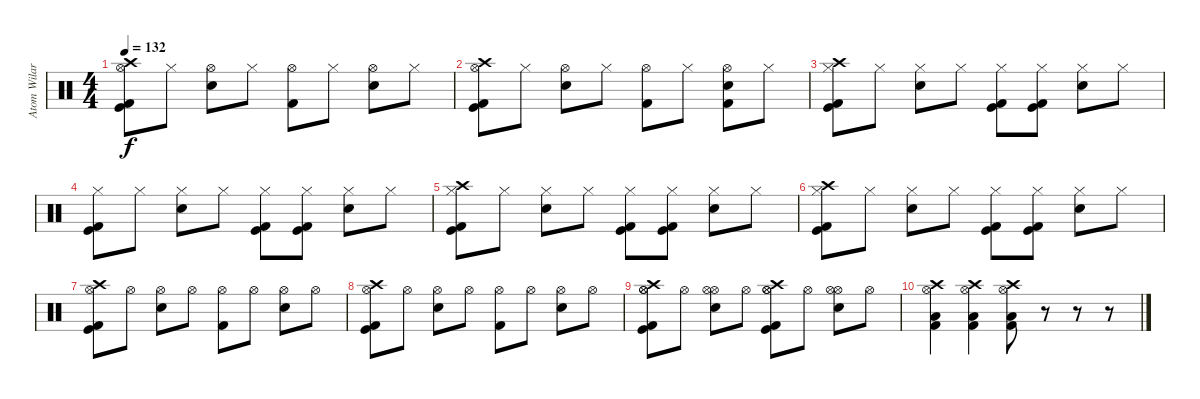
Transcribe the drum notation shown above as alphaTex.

\track ("Atom Wilard or Ron Welty ?" "Atom Wilar") {instrument percussion}
\staff {score}
\articulation defaults
\ts (4 4)
\tempo 132
\clef neutral
\ks c
("Hi-Hat (open)" "Crash high (hit)" "Kick (hit)" "Kick (hit) 2").8{dy f} "Hi-Hat (closed)".8 ("Hi-Hat (open)" "Electric Snare (hit)").8 "Hi-Hat (closed)".8 ("Hi-Hat (open)" "Kick (hit) 2").8 "Hi-Hat (closed)".8 ("Hi-Hat (open)" "Electric Snare (hit)").8 "Hi-Hat (closed)".8 |
("Hi-Hat (open)" "Crash high (hit)" "Kick (hit)" "Kick (hit) 2").8 "Hi-Hat (closed)".8 ("Hi-Hat (open)" "Electric Snare (hit)").8 "Hi-Hat (closed)".8 ("Hi-Hat (open)" "Kick (hit) 2").8 "Hi-Hat (closed)".8 ("Hi-Hat (open)" "Electric Snare (hit)" "Kick (hit) 2").8 "Hi-Hat (closed)".8 |
("Hi-Hat (closed)" "Crash high (hit)" "Kick (hit)" "Kick (hit) 2").8 "Hi-Hat (closed)".8 ("Hi-Hat (closed)" "Electric Snare (hit)").8 "Hi-Hat (closed)".8 ("Hi-Hat (closed)" "Kick (hit)" "Kick (hit) 2").8 ("Hi-Hat (closed)" "Kick (hit)" "Kick (hit) 2").8 ("Hi-Hat (closed)" "Electric Snare (hit)").8 "Hi-Hat (closed)".8 |
("Hi-Hat (closed)" "Kick (hit)" "Kick (hit) 2").8 "Hi-Hat (closed)".8 ("Hi-Hat (closed)" "Electric Snare (hit)").8 "Hi-Hat (closed)".8 ("Hi-Hat (closed)" "Kick (hit)" "Kick (hit) 2").8 ("Hi-Hat (closed)" "Kick (hit)" "Kick (hit) 2").8 ("Hi-Hat (closed)" "Electric Snare (hit)").8 "Hi-Hat (closed)".8 |
("Hi-Hat (closed)" "Crash high (hit)" "Kick (hit)" "Kick (hit) 2").8 "Hi-Hat (closed)".8 ("Hi-Hat (closed)" "Electric Snare (hit)").8 "Hi-Hat (closed)".8 ("Hi-Hat (closed)" "Kick (hit)" "Kick (hit) 2").8 ("Hi-Hat (closed)" "Kick (hit)" "Kick (hit) 2").8 ("Hi-Hat (closed)" "Electric Snare (hit)").8 "Hi-Hat (closed)".8 |
("Hi-Hat (closed)" "Crash high (hit)" "Kick (hit)" "Kick (hit) 2").8 "Hi-Hat (closed)".8 ("Hi-Hat (closed)" "Electric Snare (hit)").8 "Hi-Hat (closed)".8 ("Hi-Hat (closed)" "Kick (hit)" "Kick (hit) 2").8 ("Hi-Hat (closed)" "Kick (hit)" "Kick (hit) 2").8 ("Hi-Hat (closed)" "Electric Snare (hit)").8 "Hi-Hat (closed)".8 |
("Hi-Hat (open)" "Crash high (hit)" "Kick (hit)" "Kick (hit) 2").8 "Hi-Hat (open)".8 ("Hi-Hat (open)" "Electric Snare (hit)").8 "Hi-Hat (open)".8 ("Hi-Hat (open)" "Kick (hit) 2").8 "Hi-Hat (open)".8 ("Hi-Hat (open)" "Electric Snare (hit)").8 "Hi-Hat (open)".8 |
("Hi-Hat (open)" "Crash high (hit)" "Kick (hit)" "Kick (hit) 2").8 "Hi-Hat (open)".8 ("Hi-Hat (open)" "Electric Snare (hit)").8 "Hi-Hat (open)".8 ("Hi-Hat (open)" "Kick (hit) 2").8 "Hi-Hat (open)".8 ("Hi-Hat (open)" "Electric Snare (hit)").8 "Hi-Hat (open)".8 |
("Hi-Hat (open)" "Hi-Hat (open)" "Crash high (hit)" "Kick (hit)" "Kick (hit) 2").8 "Hi-Hat (open)".8 ("Hi-Hat (open)" "Hi-Hat (open)" "Electric Snare (hit)").8 "Hi-Hat (open)".8 ("Hi-Hat (open)" "Hi-Hat (open)" "Crash high (hit)" "Kick (hit)" "Kick (hit) 2").8 "Hi-Hat (open)".8 ("Hi-Hat (open)" "Hi-Hat (open)" "Electric Snare (hit)").8 "Hi-Hat (open)".8 |
("Crash high (hit)" "Hi-Hat (open)" "Kick (hit) 2" "Low Floor Tom (hit)").4 ("Crash high (hit)" "Hi-Hat (open)" "Kick (hit) 2" "Low Floor Tom (hit)").4 ("Crash high (hit)" "Hi-Hat (open)" "Kick (hit) 2" "Low Floor Tom (hit)").8 r.8 r.8 r.8
